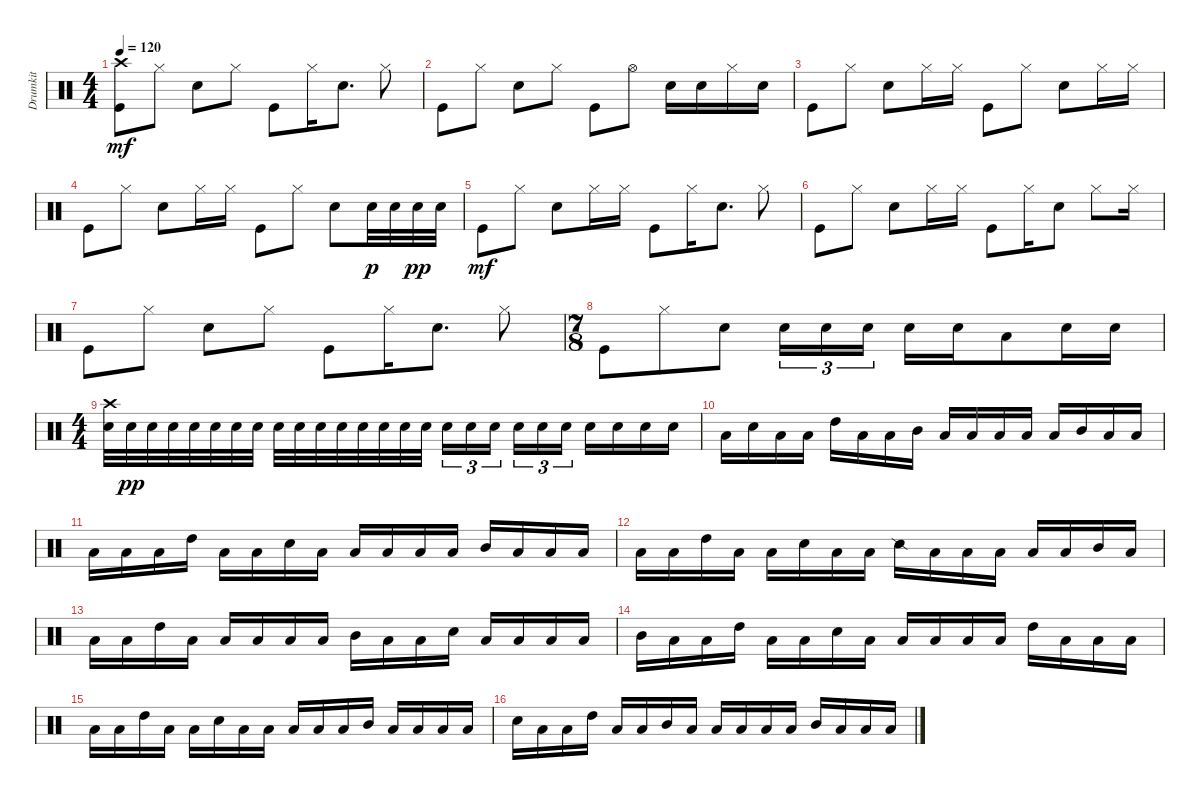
\track ("Drumkit" "Drumkit") {instrument percussion}
\staff {score}
\articulation defaults
\ts (4 4)
\tempo 120
\clef neutral
\ks c
("Crash high (hit)" "Kick (hit)").8{dy mf} "Hi-Hat (closed)".8 "Snare (hit) 2".8 "Hi-Hat (closed)".8 "Kick (hit)".8 "Hi-Hat (closed)".16 "Snare (hit) 2".8{d} "Hi-Hat (closed)".8 |
"Kick (hit)".8 "Hi-Hat (closed)".8 "Snare (hit) 2".8 "Hi-Hat (closed)".8 "Kick (hit)".8 "Hi-Hat (open)".8 "Snare (hit) 2".16 "Snare (hit) 2".16 "Hi-Hat (closed)".16 "Snare (hit) 2".16 |
"Kick (hit)".8 "Hi-Hat (closed)".8 "Snare (hit) 2".8 "Hi-Hat (closed)".16 "Hi-Hat (closed)".16 "Kick (hit)".8 "Hi-Hat (closed)".8 "Snare (hit) 2".8 "Hi-Hat (closed)".16 "Hi-Hat (closed)".16 |
"Kick (hit)".8 "Hi-Hat (closed)".8 "Snare (hit) 2".8 "Hi-Hat (closed)".16 "Hi-Hat (closed)".16 "Kick (hit)".8 "Hi-Hat (closed)".8 "Snare (hit) 2".8 "Snare (hit) 2".32{dy p} "Snare (hit) 2".32 "Snare (hit) 2".32{dy pp} "Snare (hit) 2".32 |
"Kick (hit)".8{dy mf} "Hi-Hat (closed)".8 "Snare (hit) 2".8 "Hi-Hat (closed)".16 "Hi-Hat (closed)".16 "Kick (hit)".8 "Hi-Hat (closed)".16 "Snare (hit) 2".8{d} "Hi-Hat (closed)".8 |
"Kick (hit)".8 "Hi-Hat (closed)".8 "Snare (hit) 2".8 "Hi-Hat (closed)".16 "Hi-Hat (closed)".16 "Kick (hit)".8 "Hi-Hat (closed)".16 "Snare (hit) 2".8 "Hi-Hat (closed)".8 "Hi-Hat (closed)".16 |
"Kick (hit)".8 "Hi-Hat (closed)".8 "Snare (hit) 2".8 "Hi-Hat (closed)".8 "Kick (hit)".8 "Hi-Hat (closed)".16 "Snare (hit) 2".8{d} "Hi-Hat (closed)".8 |
\ts (7 8)
"Kick (hit)".8 "Hi-Hat (closed)".8 "Snare (hit) 2".8 "Snare (hit) 2".16{tu (3 2)} "Snare (hit) 2".16{tu (3 2)} "Snare (hit) 2".16{tu (3 2)} "Snare (hit) 2".16 "Snare (hit) 2".16 "Low Tom (hit)".8 "Snare (hit) 2".16 "Snare (hit) 2".16 |
\ts (4 4)
("Crash high (hit)" "Snare (hit) 2").32 "Snare (hit) 2".32{dy pp} "Snare (hit) 2".32 "Snare (hit) 2".32 "Snare (hit) 2".32 "Snare (hit) 2".32 "Snare (hit) 2".32 "Snare (hit) 2".32 "Snare (hit) 2".32 "Snare (hit) 2".32 "Snare (hit) 2".32 "Snare (hit) 2".32 "Snare (hit) 2".32 "Snare (hit) 2".32 "Snare (hit) 2".32 "Snare (hit) 2".32 "Snare (hit) 2".16{tu (3 2)} "Snare (hit) 2".16{tu (3 2)} "Snare (hit) 2".16{tu (3 2)} "Snare (hit) 2".16{tu (3 2)} "Snare (hit) 2".16{tu (3 2)} "Snare (hit) 2".16{tu (3 2)} "Snare (hit) 2".16 "Snare (hit) 2".16 "Snare (hit) 2".16 "Snare (hit) 2".16 |
"Low Tom (hit)".16 "Snare (hit) 2".16 "Low Tom (hit)".16 "Low Tom (hit)".16 "High Tom (hit)".16 "Low Tom (hit)".16 "Low Tom (hit)".16 "Mid Tom (hit)".16 "Low Tom (hit)".16 "Low Tom (hit)".16 "Low Tom (hit)".16 "Low Tom (hit)".16 "Low Tom (hit)".16 "Mid Tom (hit)".16 "Low Tom (hit)".16 "Low Tom (hit)".16 |
"Low Tom (hit)".16 "Low Tom (hit)".16 "Low Tom (hit)".16 "High Tom (hit)".16 "Low Tom (hit)".16 "Low Tom (hit)".16 "Snare (hit) 2".16 "Low Tom (hit)".16 "Low Tom (hit)".16 "Low Tom (hit)".16 "Low Tom (hit)".16 "Low Tom (hit)".16 "Mid Tom (hit)".16 "Low Tom (hit)".16 "Low Tom (hit)".16 "Low Tom (hit)".16 |
"Low Tom (hit)".16 "Low Tom (hit)".16 "High Tom (hit)".16 "Low Tom (hit)".16 "Low Tom (hit)".16 "Snare (hit) 2".16 "Low Tom (hit)".16 "Low Tom (hit)".16 "Snare (side stick) 2".16 "Low Tom (hit)".16 "Low Tom (hit)".16 "Low Tom (hit)".16 "Low Tom (hit)".16 "Low Tom (hit)".16 "Mid Tom (hit)".16 "Low Tom (hit)".16 |
"Low Tom (hit)".16 "Low Tom (hit)".16 "High Tom (hit)".16 "Low Tom (hit)".16 "Low Tom (hit)".16 "Low Tom (hit)".16 "Low Tom (hit)".16 "Low Tom (hit)".16 "Mid Tom (hit)".16 "Low Tom (hit)".16 "Low Tom (hit)".16 "Snare (hit) 2".16 "Low Tom (hit)".16 "Low Tom (hit)".16 "Low Tom (hit)".16 "Low Tom (hit)".16 |
"Mid Tom (hit)".16 "Low Tom (hit)".16 "Low Tom (hit)".16 "High Tom (hit)".16 "Low Tom (hit)".16 "Low Tom (hit)".16 "Snare (hit) 2".16 "Low Tom (hit)".16 "Low Tom (hit)".16 "Low Tom (hit)".16 "Low Tom (hit)".16 "Low Tom (hit)".16 "High Tom (hit)".16 "Low Tom (hit)".16 "Low Tom (hit)".16 "Low Tom (hit)".16 |
"Low Tom (hit)".16 "Low Tom (hit)".16 "High Tom (hit)".16 "Low Tom (hit)".16 "Low Tom (hit)".16 "Snare (hit) 2".16 "Low Tom (hit)".16 "Low Tom (hit)".16 "Low Tom (hit)".16 "Low Tom (hit)".16 "Low Tom (hit)".16 "Mid Tom (hit)".16 "Low Tom (hit)".16 "Low Tom (hit)".16 "Low Tom (hit)".16 "Low Tom (hit)".16 |
"Snare (hit) 2".16 "Low Tom (hit)".16 "Low Tom (hit)".16 "High Tom (hit)".16 "Low Tom (hit)".16 "Low Tom (hit)".16 "Mid Tom (hit)".16 "Low Tom (hit)".16 "Low Tom (hit)".16 "Low Tom (hit)".16 "Low Tom (hit)".16 "Low Tom (hit)".16 "Mid Tom (hit)".16 "Low Tom (hit)".16 "Low Tom (hit)".16 "Low Tom (hit)".16
